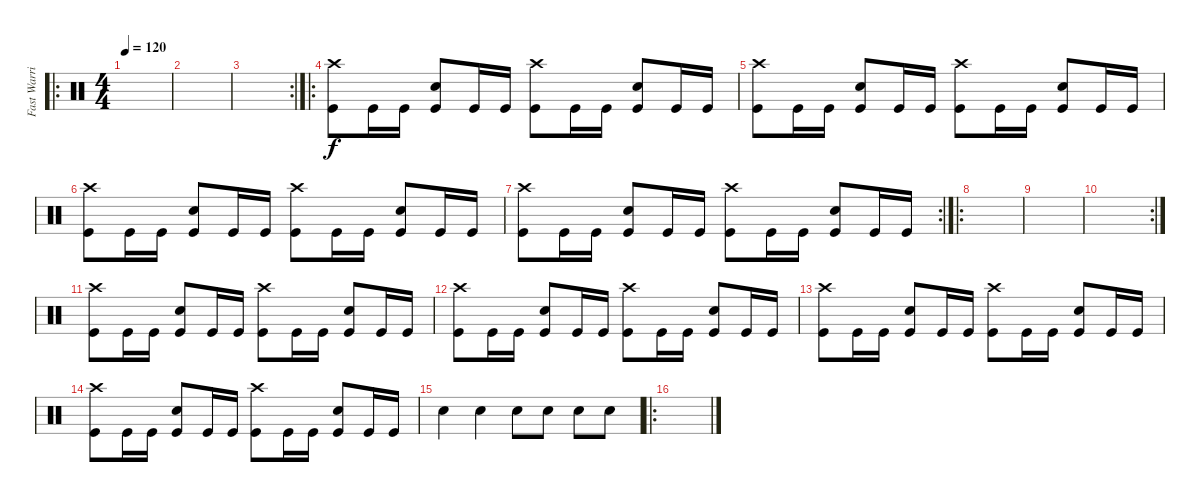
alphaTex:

\track ("Fast Warrior" "Fast Warri") {instrument percussion}
\staff {score}
\articulation defaults
\ro
\ts (4 4)
\tempo 120
\clef neutral
\ks c
|
|
\rc 2
|
\ro
("Crash high (hit)" "Kick (hit)").8 "Kick (hit)".16 "Kick (hit)".16 ("Electric Snare (hit)" "Kick (hit)").8 "Kick (hit)".16 "Kick (hit)".16 ("Crash high (hit)" "Kick (hit)").8 "Kick (hit)".16 "Kick (hit)".16 ("Electric Snare (hit)" "Kick (hit)").8 "Kick (hit)".16 "Kick (hit)".16 |
("Crash high (hit)" "Kick (hit)").8 "Kick (hit)".16 "Kick (hit)".16 ("Electric Snare (hit)" "Kick (hit)").8 "Kick (hit)".16 "Kick (hit)".16 ("Crash high (hit)" "Kick (hit)").8 "Kick (hit)".16 "Kick (hit)".16 ("Electric Snare (hit)" "Kick (hit)").8 "Kick (hit)".16 "Kick (hit)".16 |
("Crash high (hit)" "Kick (hit)").8 "Kick (hit)".16 "Kick (hit)".16 ("Electric Snare (hit)" "Kick (hit)").8 "Kick (hit)".16 "Kick (hit)".16 ("Crash high (hit)" "Kick (hit)").8 "Kick (hit)".16 "Kick (hit)".16 ("Electric Snare (hit)" "Kick (hit)").8 "Kick (hit)".16 "Kick (hit)".16 |
\rc 2
("Crash high (hit)" "Kick (hit)").8 "Kick (hit)".16 "Kick (hit)".16 ("Electric Snare (hit)" "Kick (hit)").8 "Kick (hit)".16 "Kick (hit)".16 ("Crash high (hit)" "Kick (hit)").8 "Kick (hit)".16 "Kick (hit)".16 ("Electric Snare (hit)" "Kick (hit)").8 "Kick (hit)".16 "Kick (hit)".16 |
\ro
|
|
\rc 2
|
("Crash high (hit)" "Kick (hit)").8 "Kick (hit)".16 "Kick (hit)".16 ("Electric Snare (hit)" "Kick (hit)").8 "Kick (hit)".16 "Kick (hit)".16 ("Crash high (hit)" "Kick (hit)").8 "Kick (hit)".16 "Kick (hit)".16 ("Electric Snare (hit)" "Kick (hit)").8 "Kick (hit)".16 "Kick (hit)".16 |
("Crash high (hit)" "Kick (hit)").8 "Kick (hit)".16 "Kick (hit)".16 ("Electric Snare (hit)" "Kick (hit)").8 "Kick (hit)".16 "Kick (hit)".16 ("Crash high (hit)" "Kick (hit)").8 "Kick (hit)".16 "Kick (hit)".16 ("Electric Snare (hit)" "Kick (hit)").8 "Kick (hit)".16 "Kick (hit)".16 |
("Crash high (hit)" "Kick (hit)").8 "Kick (hit)".16 "Kick (hit)".16 ("Electric Snare (hit)" "Kick (hit)").8 "Kick (hit)".16 "Kick (hit)".16 ("Crash high (hit)" "Kick (hit)").8 "Kick (hit)".16 "Kick (hit)".16 ("Electric Snare (hit)" "Kick (hit)").8 "Kick (hit)".16 "Kick (hit)".16 |
("Crash high (hit)" "Kick (hit)").8 "Kick (hit)".16 "Kick (hit)".16 ("Electric Snare (hit)" "Kick (hit)").8 "Kick (hit)".16 "Kick (hit)".16 ("Crash high (hit)" "Kick (hit)").8 "Kick (hit)".16 "Kick (hit)".16 ("Electric Snare (hit)" "Kick (hit)").8 "Kick (hit)".16 "Kick (hit)".16 |
"Electric Snare (hit)".4 "Electric Snare (hit)".4 "Electric Snare (hit)".8 "Electric Snare (hit)".8 "Electric Snare (hit)".8 "Electric Snare (hit)".8 |
\ro
